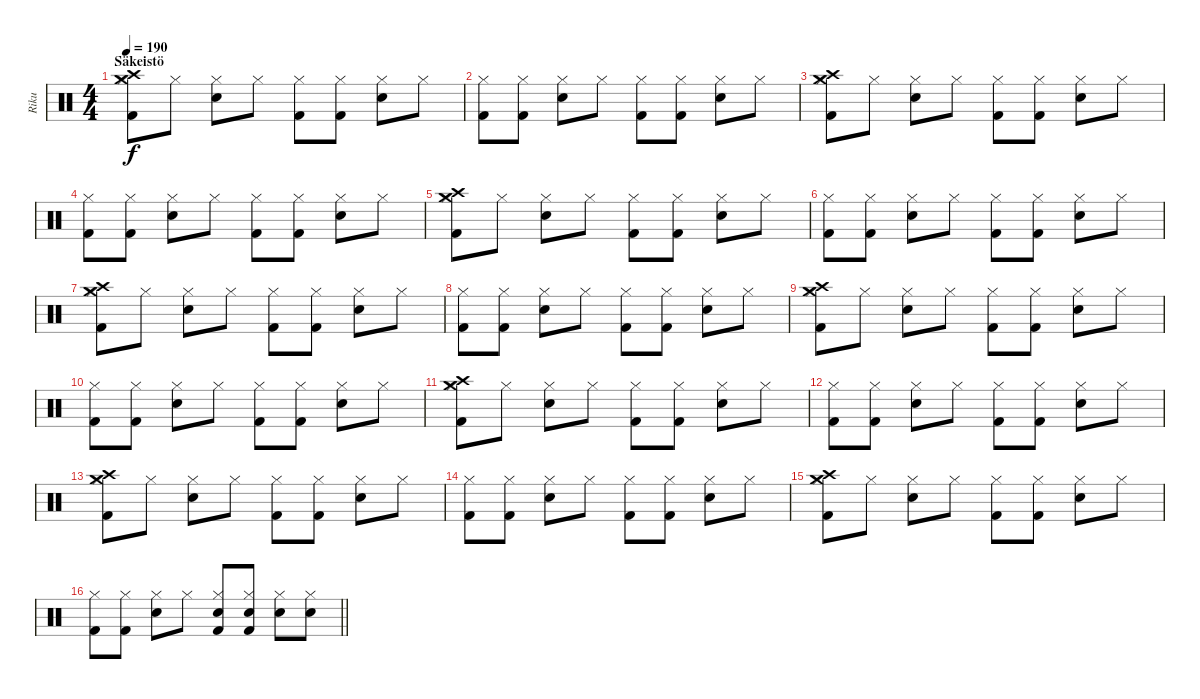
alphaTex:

\track ("Riku" "Riku") {instrument percussion}
\staff {score}
\articulation defaults
\ts (4 4)
\section ("" "Säkeistö")
\tempo 190
\clef neutral
\ks c
("Kick (hit) 2" "Hi-Hat (closed)" "Crash medium (hit)" "Crash high (hit)").8{dy f} "Hi-Hat (closed)".8 ("Snare (hit) 2" "Hi-Hat (closed)").8 "Hi-Hat (closed)".8 ("Kick (hit) 2" "Hi-Hat (closed)").8 ("Kick (hit) 2" "Hi-Hat (closed)").8 ("Snare (hit) 2" "Hi-Hat (closed)").8 "Hi-Hat (closed)".8 |
("Kick (hit) 2" "Hi-Hat (closed)").8 ("Kick (hit) 2" "Hi-Hat (closed)").8 ("Snare (hit) 2" "Hi-Hat (closed)").8 "Hi-Hat (closed)".8 ("Kick (hit) 2" "Hi-Hat (closed)").8 ("Kick (hit) 2" "Hi-Hat (closed)").8 ("Snare (hit) 2" "Hi-Hat (closed)").8 "Hi-Hat (closed)".8 |
("Kick (hit) 2" "Hi-Hat (closed)" "Crash medium (hit)" "Crash high (hit)").8 "Hi-Hat (closed)".8 ("Snare (hit) 2" "Hi-Hat (closed)").8 "Hi-Hat (closed)".8 ("Kick (hit) 2" "Hi-Hat (closed)").8 ("Kick (hit) 2" "Hi-Hat (closed)").8 ("Snare (hit) 2" "Hi-Hat (closed)").8 "Hi-Hat (closed)".8 |
("Kick (hit) 2" "Hi-Hat (closed)").8 ("Kick (hit) 2" "Hi-Hat (closed)").8 ("Snare (hit) 2" "Hi-Hat (closed)").8 "Hi-Hat (closed)".8 ("Kick (hit) 2" "Hi-Hat (closed)").8 ("Kick (hit) 2" "Hi-Hat (closed)").8 ("Snare (hit) 2" "Hi-Hat (closed)").8 "Hi-Hat (closed)".8 |
("Kick (hit) 2" "Hi-Hat (closed)" "Crash medium (hit)" "Crash high (hit)").8 "Hi-Hat (closed)".8 ("Snare (hit) 2" "Hi-Hat (closed)").8 "Hi-Hat (closed)".8 ("Kick (hit) 2" "Hi-Hat (closed)").8 ("Kick (hit) 2" "Hi-Hat (closed)").8 ("Snare (hit) 2" "Hi-Hat (closed)").8 "Hi-Hat (closed)".8 |
("Kick (hit) 2" "Hi-Hat (closed)").8 ("Kick (hit) 2" "Hi-Hat (closed)").8 ("Snare (hit) 2" "Hi-Hat (closed)").8 "Hi-Hat (closed)".8 ("Kick (hit) 2" "Hi-Hat (closed)").8 ("Kick (hit) 2" "Hi-Hat (closed)").8 ("Snare (hit) 2" "Hi-Hat (closed)").8 "Hi-Hat (closed)".8 |
("Kick (hit) 2" "Hi-Hat (closed)" "Crash medium (hit)" "Crash high (hit)").8 "Hi-Hat (closed)".8 ("Snare (hit) 2" "Hi-Hat (closed)").8 "Hi-Hat (closed)".8 ("Kick (hit) 2" "Hi-Hat (closed)").8 ("Kick (hit) 2" "Hi-Hat (closed)").8 ("Snare (hit) 2" "Hi-Hat (closed)").8 "Hi-Hat (closed)".8 |
("Kick (hit) 2" "Hi-Hat (closed)").8 ("Kick (hit) 2" "Hi-Hat (closed)").8 ("Snare (hit) 2" "Hi-Hat (closed)").8 "Hi-Hat (closed)".8 ("Kick (hit) 2" "Hi-Hat (closed)").8 ("Kick (hit) 2" "Hi-Hat (closed)").8 ("Snare (hit) 2" "Hi-Hat (closed)").8 "Hi-Hat (closed)".8 |
("Kick (hit) 2" "Hi-Hat (closed)" "Crash medium (hit)" "Crash high (hit)").8 "Hi-Hat (closed)".8 ("Snare (hit) 2" "Hi-Hat (closed)").8 "Hi-Hat (closed)".8 ("Kick (hit) 2" "Hi-Hat (closed)").8 ("Kick (hit) 2" "Hi-Hat (closed)").8 ("Snare (hit) 2" "Hi-Hat (closed)").8 "Hi-Hat (closed)".8 |
("Kick (hit) 2" "Hi-Hat (closed)").8 ("Kick (hit) 2" "Hi-Hat (closed)").8 ("Snare (hit) 2" "Hi-Hat (closed)").8 "Hi-Hat (closed)".8 ("Kick (hit) 2" "Hi-Hat (closed)").8 ("Kick (hit) 2" "Hi-Hat (closed)").8 ("Snare (hit) 2" "Hi-Hat (closed)").8 "Hi-Hat (closed)".8 |
("Kick (hit) 2" "Hi-Hat (closed)" "Crash medium (hit)" "Crash high (hit)").8 "Hi-Hat (closed)".8 ("Snare (hit) 2" "Hi-Hat (closed)").8 "Hi-Hat (closed)".8 ("Kick (hit) 2" "Hi-Hat (closed)").8 ("Kick (hit) 2" "Hi-Hat (closed)").8 ("Snare (hit) 2" "Hi-Hat (closed)").8 "Hi-Hat (closed)".8 |
("Kick (hit) 2" "Hi-Hat (closed)").8 ("Kick (hit) 2" "Hi-Hat (closed)").8 ("Snare (hit) 2" "Hi-Hat (closed)").8 "Hi-Hat (closed)".8 ("Kick (hit) 2" "Hi-Hat (closed)").8 ("Kick (hit) 2" "Hi-Hat (closed)").8 ("Snare (hit) 2" "Hi-Hat (closed)").8 "Hi-Hat (closed)".8 |
("Kick (hit) 2" "Hi-Hat (closed)" "Crash medium (hit)" "Crash high (hit)").8 "Hi-Hat (closed)".8 ("Snare (hit) 2" "Hi-Hat (closed)").8 "Hi-Hat (closed)".8 ("Kick (hit) 2" "Hi-Hat (closed)").8 ("Kick (hit) 2" "Hi-Hat (closed)").8 ("Snare (hit) 2" "Hi-Hat (closed)").8 "Hi-Hat (closed)".8 |
("Kick (hit) 2" "Hi-Hat (closed)").8 ("Kick (hit) 2" "Hi-Hat (closed)").8 ("Snare (hit) 2" "Hi-Hat (closed)").8 "Hi-Hat (closed)".8 ("Kick (hit) 2" "Hi-Hat (closed)").8 ("Kick (hit) 2" "Hi-Hat (closed)").8 ("Snare (hit) 2" "Hi-Hat (closed)").8 "Hi-Hat (closed)".8 |
("Kick (hit) 2" "Hi-Hat (closed)" "Crash medium (hit)" "Crash high (hit)").8 "Hi-Hat (closed)".8 ("Snare (hit) 2" "Hi-Hat (closed)").8 "Hi-Hat (closed)".8 ("Kick (hit) 2" "Hi-Hat (closed)").8 ("Kick (hit) 2" "Hi-Hat (closed)").8 ("Snare (hit) 2" "Hi-Hat (closed)").8 "Hi-Hat (closed)".8 |
\barLineRight lightlight
("Kick (hit) 2" "Hi-Hat (closed)").8 ("Kick (hit) 2" "Hi-Hat (closed)").8 ("Snare (hit) 2" "Hi-Hat (closed)").8 "Hi-Hat (closed)".8 ("Kick (hit) 2" "Hi-Hat (closed)" "Snare (hit) 2").8 ("Kick (hit) 2" "Hi-Hat (closed)" "Snare (hit) 2").8 ("Snare (hit) 2" "Hi-Hat (closed)").8 ("Hi-Hat (closed)" "Snare (hit) 2").8
